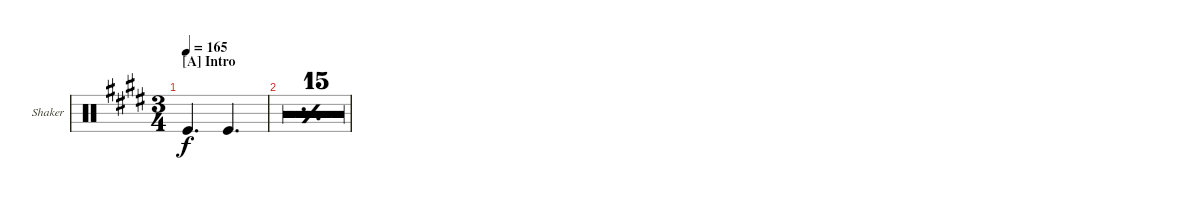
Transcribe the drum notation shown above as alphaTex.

\defaultSystemsLayout 4
\bracketExtendMode groupsimilarinstruments
\firstSystemTrackNameOrientation horizontal
\otherSystemsTrackNameOrientation horizontal
\track ("Shaker 2" "Shaker") {multiBarRest instrument percussion}
\staff {score}
\articulation defaults
\ts (3 4)
\section ("A" "Intro")
\tempo 165
\clef neutral
\ks e "Kick (hit)".4{d dy f} "Kick (hit)".4{d}
|
\simile simple
|
|
|
|
|
|
|
|
|
r.2{d} |
r.2{d} |
r.2{d} |
r.2{d} |
r.2{d} |
r.2{d}
